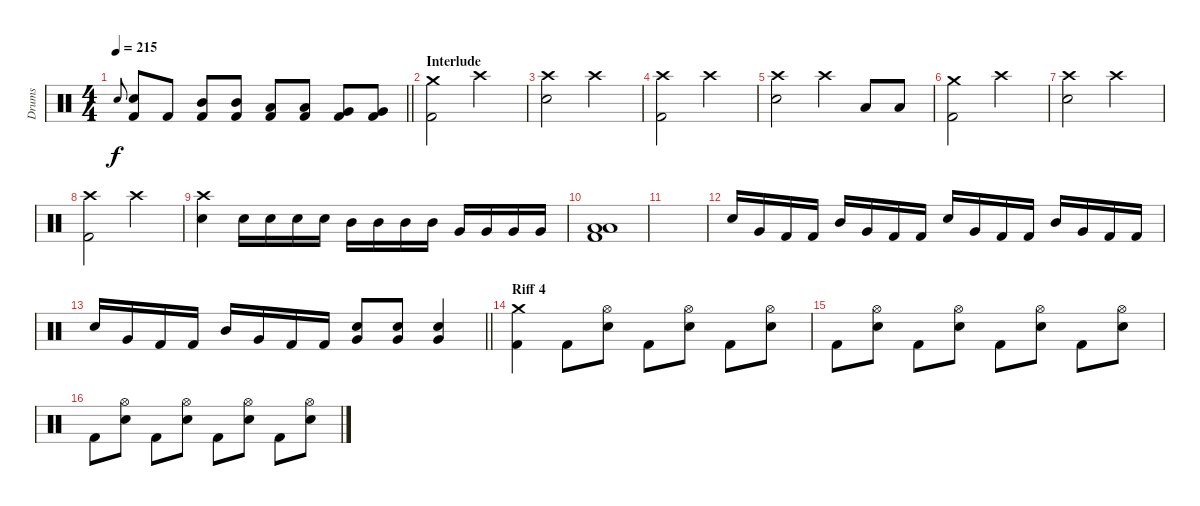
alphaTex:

\track ("Drums" "Drums") {instrument percussion}
\staff {score}
\articulation defaults
\ts (4 4)
\tempo 215
\clef neutral
\barLineRight lightlight
\ks c "Electric Snare (hit)".8{gr onbeat dy f}
("Kick (hit) 2" "Electric Snare (hit)").8 "Kick (hit) 2".8 ("Kick (hit) 2" "Mid Tom (hit)").8 ("Kick (hit) 2" "Mid Tom (hit)").8 ("Kick (hit) 2" "Low Tom (hit)").8 ("Kick (hit) 2" "Low Tom (hit)").8 ("Kick (hit) 2" "Very Low Tom (hit)").8 ("Kick (hit) 2" "Very Low Tom (hit)").8 |
\section ("" "Interlude")
("Crash medium (hit)" "Kick (hit) 2").2 "Crash high (hit)".2 |
("Crash high (hit)" "Electric Snare (hit)").2 "Crash high (hit)".2 |
("Kick (hit) 2" "Crash high (hit)").2 "Crash high (hit)".2 |
("Crash high (hit)" "Electric Snare (hit)").2 "Crash high (hit)".4 "Low Tom (hit)".8 "Low Tom (hit)".8 |
("Crash medium (hit)" "Kick (hit) 2").2 "Crash high (hit)".2 |
("Crash high (hit)" "Electric Snare (hit)").2 "Crash high (hit)".2 |
("Kick (hit) 2" "Crash high (hit)").2 "Crash high (hit)".2 |
("Crash high (hit)" "Electric Snare (hit)").4 "Electric Snare (hit)".16 "Electric Snare (hit)".16 "Electric Snare (hit)".16 "Electric Snare (hit)".16 "Mid Tom (hit)".16 "Mid Tom (hit)".16 "Mid Tom (hit)".16 "Mid Tom (hit)".16 "Very Low Tom (hit)".16 "Very Low Tom (hit)".16 "Very Low Tom (hit)".16 "Very Low Tom (hit)".16 |
("Low Tom (hit)" "Low Floor Tom (hit)" "Kick (hit) 2").1 |
|
"Electric Snare (hit)".16 "Very Low Tom (hit)".16 "Kick (hit) 2".16 "Kick (hit) 2".16 "Mid Tom (hit)".16 "Very Low Tom (hit)".16 "Kick (hit) 2".16 "Kick (hit) 2".16 "Electric Snare (hit)".16 "Very Low Tom (hit)".16 "Kick (hit) 2".16 "Kick (hit) 2".16 "Mid Tom (hit)".16 "Very Low Tom (hit)".16 "Kick (hit) 2".16 "Kick (hit) 2".16 |
\barLineRight lightlight "Electric Snare (hit)".16 "Very Low Tom (hit)".16 "Kick (hit) 2".16 "Kick (hit) 2".16 "Mid Tom (hit)".16 "Very Low Tom (hit)".16 "Kick (hit) 2".16 "Kick (hit) 2".16
("Electric Snare (hit)" "Very Low Tom (hit)").8 ("Electric Snare (hit)" "Very Low Tom (hit)").8 ("Electric Snare (hit)" "Very Low Tom (hit)").4 |
\section ("" "Riff 4")
("Crash medium (hit)" "Kick (hit) 2").4 "Kick (hit) 2".8 ("Hi-Hat (open)" "Electric Snare (hit)").8 "Kick (hit) 2".8 ("Hi-Hat (open)" "Electric Snare (hit)").8 "Kick (hit) 2".8 ("Electric Snare (hit)" "Hi-Hat (open)").8 |
"Kick (hit) 2".8 ("Hi-Hat (open)" "Electric Snare (hit)").8 "Kick (hit) 2".8 ("Electric Snare (hit)" "Hi-Hat (open)").8 "Kick (hit) 2".8 ("Hi-Hat (open)" "Electric Snare (hit)").8 "Kick (hit) 2".8 ("Electric Snare (hit)" "Hi-Hat (open)").8 |
"Kick (hit) 2".8 ("Hi-Hat (open)" "Electric Snare (hit)").8 "Kick (hit) 2".8 ("Electric Snare (hit)" "Hi-Hat (open)").8 "Kick (hit) 2".8 ("Hi-Hat (open)" "Electric Snare (hit)").8 "Kick (hit) 2".8 ("Electric Snare (hit)" "Hi-Hat (open)").8
